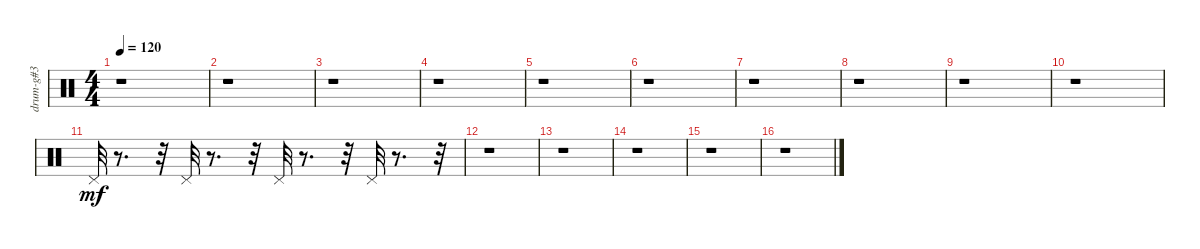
\track ("drum-g#3" "drum-g#3") {instrument percussion}
\staff {score}
\articulation defaults
\ts (4 4)
\tempo 120
\clef neutral
\ks c
r.1{dy mf} |
r.1 |
r.1 |
r.1 |
r.1 |
r.1 |
r.1 |
r.1 |
r.1 |
r.1 |
"Pedal Hi-Hat (hit)".32 r.8{d} r.32 "Pedal Hi-Hat (hit)".32 r.8{d} r.32 "Pedal Hi-Hat (hit)".32 r.8{d} r.32 "Pedal Hi-Hat (hit)".32 r.8{d} r.32 |
r.1 |
r.1 |
r.1 |
r.1 |
r.1
